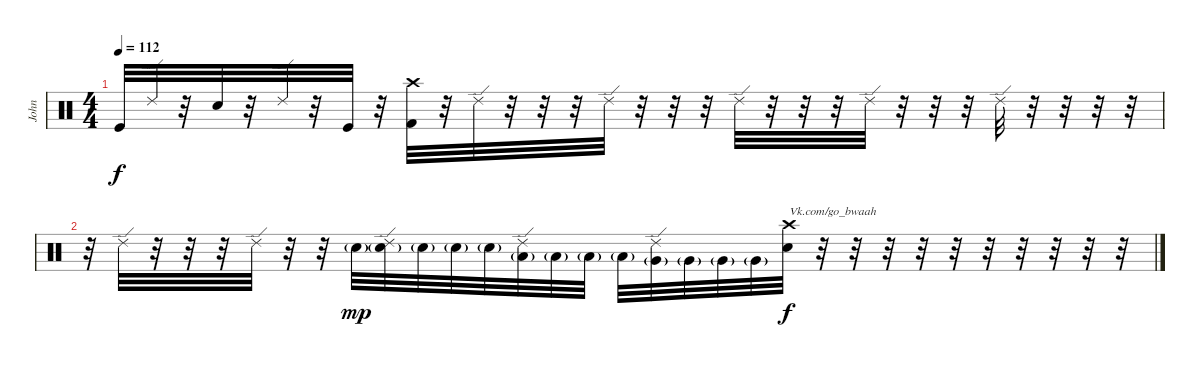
\track ("John" "John") {instrument percussion}
\staff {score}
\articulation defaults
\ts (4 4)
\tempo 112
\clef neutral
\ks c "Kick (hit)".32{dy f} "Ride (edge) 2".32
r.32 "Electric Snare (hit)".32 r.32 "Ride (edge) 2".32 r.32 "Kick (hit)".32 r.32 ("Crash high (hit)" "Kick (hit) 2").32 r.32 "Ride (edge) 2".32 r.32 r.32 r.32 "Ride (edge) 2".32 r.32 r.32 r.32 "Ride (edge) 2".32 r.32 r.32 r.32 "Ride (edge) 2".32 r.32 r.32 r.32 "Ride (edge) 2".32 r.32 r.32 r.32 r.32 |
r.32 "Ride (edge) 2".32 r.32 r.32 r.32 "Ride (edge) 2".32 r.32 r.32 "Electric Snare (hit)"{g}.32{dy mp} ("Ride (edge) 2" "Electric Snare (hit)"{g}).32 "Electric Snare (hit)"{g}.32 "Electric Snare (hit)"{g}.32 "Electric Snare (hit)"{g}.32 ("Ride (edge) 2" "Low Tom (hit)"{g}).32 "Low Tom (hit)"{g}.32 "Low Tom (hit)"{g}.32 "Low Tom (hit)"{g}.32 ("Ride (edge) 2" "Very Low Tom (hit)"{g}).32 "Very Low Tom (hit)"{g}.32 "Very Low Tom (hit)"{g}.32 "Very Low Tom (hit)"{g}.32 ("Crash high (hit)" "Electric Snare (hit)").32{txt "Vk.com/go_bwaah" dy f} r.32 r.32 r.32 r.32 r.32 r.32 r.32 r.32 r.32 r.32
